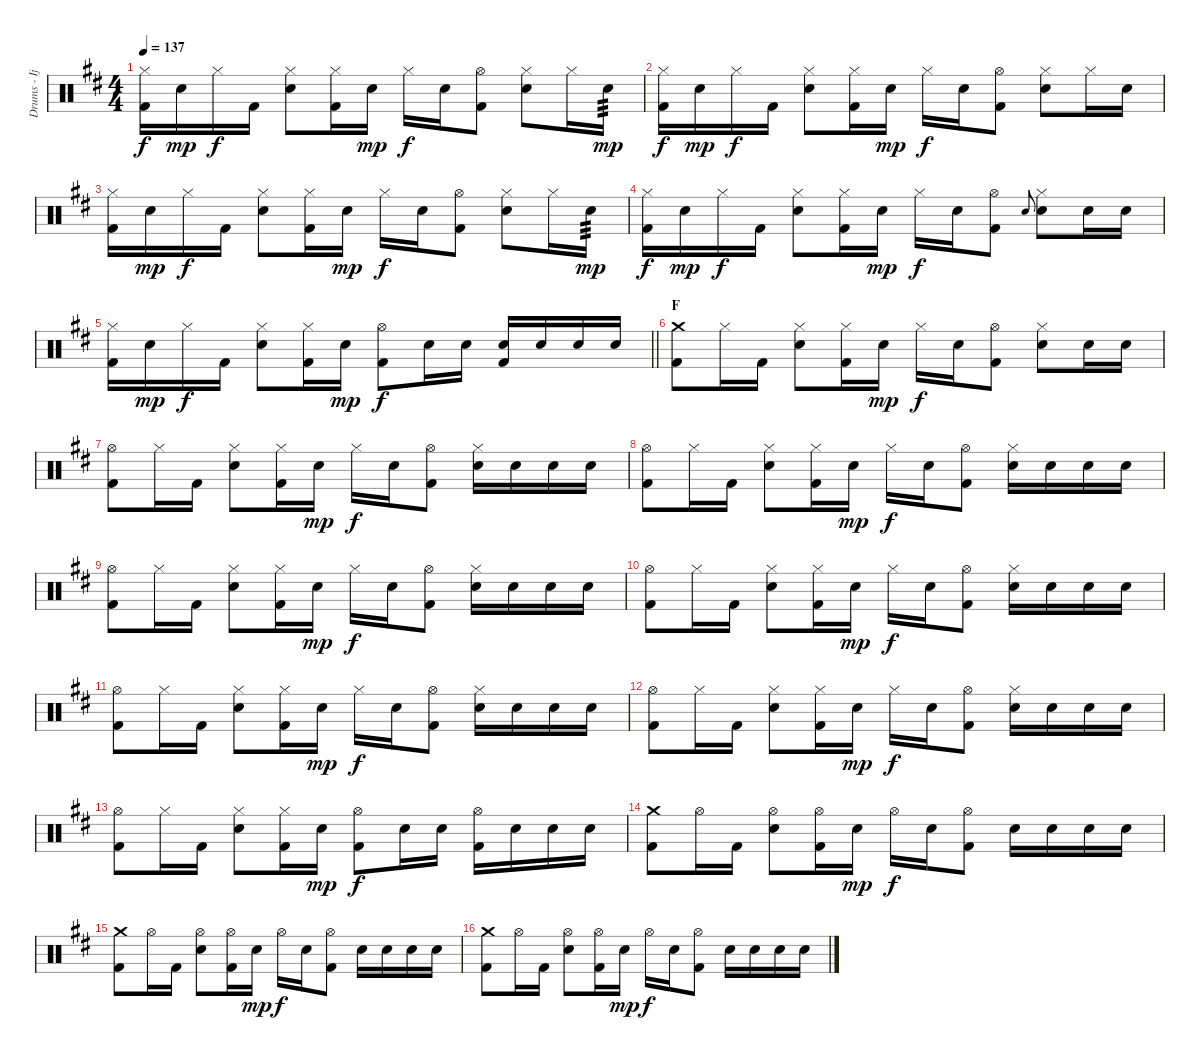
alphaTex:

\track ("Drums - Ijichi" "Drums - Ij") {instrument percussion}
\staff {score}
\articulation defaults
\ts (4 4)
\tempo 137
\clef neutral
\ks d
("Hi-Hat (closed)" "Kick (hit) 2").16{dy f} "Electric Snare (hit)".16{dy mp} "Hi-Hat (closed)".16{dy f} "Kick (hit) 2".16 ("Hi-Hat (closed)" "Electric Snare (hit)").8 ("Hi-Hat (closed)" "Kick (hit) 2").16 "Electric Snare (hit)".16{dy mp} "Hi-Hat (closed)".16{dy f} "Electric Snare (hit)".16 ("Hi-Hat (open)" "Kick (hit) 2").8 ("Hi-Hat (closed)" "Electric Snare (hit)").8 "Hi-Hat (closed)".16 "Electric Snare (hit)".16{tp 3 dy mp} |
("Hi-Hat (closed)" "Kick (hit) 2").16{dy f} "Electric Snare (hit)".16{dy mp} "Hi-Hat (closed)".16{dy f} "Kick (hit) 2".16 ("Hi-Hat (closed)" "Electric Snare (hit)").8 ("Hi-Hat (closed)" "Kick (hit) 2").16 "Electric Snare (hit)".16{dy mp} "Hi-Hat (closed)".16{dy f} "Electric Snare (hit)".16 ("Hi-Hat (open)" "Kick (hit) 2").8 ("Hi-Hat (closed)" "Electric Snare (hit)").8 "Hi-Hat (closed)".16 "Electric Snare (hit)".16 |
("Hi-Hat (closed)" "Kick (hit) 2").16 "Electric Snare (hit)".16{dy mp} "Hi-Hat (closed)".16{dy f} "Kick (hit) 2".16 ("Hi-Hat (closed)" "Electric Snare (hit)").8 ("Hi-Hat (closed)" "Kick (hit) 2").16 "Electric Snare (hit)".16{dy mp} "Hi-Hat (closed)".16{dy f} "Electric Snare (hit)".16 ("Hi-Hat (open)" "Kick (hit) 2").8 ("Hi-Hat (closed)" "Electric Snare (hit)").8 "Hi-Hat (closed)".16 "Electric Snare (hit)".16{tp 3 dy mp} |
("Hi-Hat (closed)" "Kick (hit) 2").16{dy f} "Electric Snare (hit)".16{dy mp} "Hi-Hat (closed)".16{dy f} "Kick (hit) 2".16 ("Hi-Hat (closed)" "Electric Snare (hit)").8 ("Hi-Hat (closed)" "Kick (hit) 2").16 "Electric Snare (hit)".16{dy mp} "Hi-Hat (closed)".16{dy f} "Electric Snare (hit)".16 ("Hi-Hat (open)" "Kick (hit) 2").8 "Electric Snare (hit)".8{gr onbeat} ("Hi-Hat (closed)" "Electric Snare (hit)").8 "Electric Snare (hit)".16 "Electric Snare (hit)".16 |
\barLineRight lightlight
("Hi-Hat (closed)" "Kick (hit) 2").16 "Electric Snare (hit)".16{dy mp} "Hi-Hat (closed)".16{dy f} "Kick (hit) 2".16 ("Hi-Hat (closed)" "Electric Snare (hit)").8 ("Hi-Hat (closed)" "Kick (hit) 2").16 "Electric Snare (hit)".16{dy mp} ("Hi-Hat (open)" "Kick (hit) 2").8{dy f} "Electric Snare (hit)".16 "Electric Snare (hit)".16 ("Electric Snare (hit)" "Kick (hit) 2").16 "Electric Snare (hit)".16 "Electric Snare (hit)".16 "Electric Snare (hit)".16 |
\section ("" "F")
("Crash medium (hit)" "Kick (hit) 2").8 "Hi-Hat (closed)".16 "Kick (hit) 2".16 ("Hi-Hat (closed)" "Electric Snare (hit)").8 ("Hi-Hat (closed)" "Kick (hit) 2").16 "Electric Snare (hit)".16{dy mp} "Hi-Hat (closed)".16{dy f} "Electric Snare (hit)".16 ("Hi-Hat (open)" "Kick (hit) 2").8 ("Hi-Hat (closed)" "Electric Snare (hit)").8 "Electric Snare (hit)".16 "Electric Snare (hit)".16 |
("Hi-Hat (open)" "Kick (hit) 2").8 "Hi-Hat (closed)".16 "Kick (hit) 2".16 ("Hi-Hat (closed)" "Electric Snare (hit)").8 ("Hi-Hat (closed)" "Kick (hit) 2").16 "Electric Snare (hit)".16{dy mp} "Hi-Hat (closed)".16{dy f} "Electric Snare (hit)".16 ("Hi-Hat (open)" "Kick (hit) 2").8 ("Hi-Hat (closed)" "Electric Snare (hit)").16 "Electric Snare (hit)".16 "Electric Snare (hit)".16 "Electric Snare (hit)".16 |
("Hi-Hat (open)" "Kick (hit) 2").8 "Hi-Hat (closed)".16 "Kick (hit) 2".16 ("Hi-Hat (closed)" "Electric Snare (hit)").8 ("Hi-Hat (closed)" "Kick (hit) 2").16 "Electric Snare (hit)".16{dy mp} "Hi-Hat (closed)".16{dy f} "Electric Snare (hit)".16 ("Hi-Hat (open)" "Kick (hit) 2").8 ("Hi-Hat (closed)" "Electric Snare (hit)").16 "Electric Snare (hit)".16 "Electric Snare (hit)".16 "Electric Snare (hit)".16 |
("Hi-Hat (open)" "Kick (hit) 2").8 "Hi-Hat (closed)".16 "Kick (hit) 2".16 ("Hi-Hat (closed)" "Electric Snare (hit)").8 ("Hi-Hat (closed)" "Kick (hit) 2").16 "Electric Snare (hit)".16{dy mp} "Hi-Hat (closed)".16{dy f} "Electric Snare (hit)".16 ("Hi-Hat (open)" "Kick (hit) 2").8 ("Hi-Hat (closed)" "Electric Snare (hit)").16 "Electric Snare (hit)".16 "Electric Snare (hit)".16 "Electric Snare (hit)".16 |
("Hi-Hat (open)" "Kick (hit) 2").8 "Hi-Hat (closed)".16 "Kick (hit) 2".16 ("Hi-Hat (closed)" "Electric Snare (hit)").8 ("Hi-Hat (closed)" "Kick (hit) 2").16 "Electric Snare (hit)".16{dy mp} "Hi-Hat (closed)".16{dy f} "Electric Snare (hit)".16 ("Hi-Hat (open)" "Kick (hit) 2").8 ("Hi-Hat (closed)" "Electric Snare (hit)").16 "Electric Snare (hit)".16 "Electric Snare (hit)".16 "Electric Snare (hit)".16 |
("Hi-Hat (open)" "Kick (hit) 2").8 "Hi-Hat (closed)".16 "Kick (hit) 2".16 ("Hi-Hat (closed)" "Electric Snare (hit)").8 ("Hi-Hat (closed)" "Kick (hit) 2").16 "Electric Snare (hit)".16{dy mp} "Hi-Hat (closed)".16{dy f} "Electric Snare (hit)".16 ("Hi-Hat (open)" "Kick (hit) 2").8 ("Hi-Hat (closed)" "Electric Snare (hit)").16 "Electric Snare (hit)".16 "Electric Snare (hit)".16 "Electric Snare (hit)".16 |
("Hi-Hat (open)" "Kick (hit) 2").8 "Hi-Hat (closed)".16 "Kick (hit) 2".16 ("Hi-Hat (closed)" "Electric Snare (hit)").8 ("Hi-Hat (closed)" "Kick (hit) 2").16 "Electric Snare (hit)".16{dy mp} "Hi-Hat (closed)".16{dy f} "Electric Snare (hit)".16 ("Hi-Hat (open)" "Kick (hit) 2").8 ("Hi-Hat (closed)" "Electric Snare (hit)").16 "Electric Snare (hit)".16 "Electric Snare (hit)".16 "Electric Snare (hit)".16 |
("Hi-Hat (open)" "Kick (hit) 2").8 "Hi-Hat (closed)".16 "Kick (hit) 2".16 ("Hi-Hat (closed)" "Electric Snare (hit)").8 ("Hi-Hat (closed)" "Kick (hit) 2").16 "Electric Snare (hit)".16{dy mp} ("Hi-Hat (open)" "Kick (hit) 2").8{dy f} "Electric Snare (hit)".16 "Electric Snare (hit)".16 ("Hi-Hat (open)" "Kick (hit) 2").16 "Electric Snare (hit)".16 "Electric Snare (hit)".16 "Electric Snare (hit)".16 |
("Crash medium (hit)" "Kick (hit) 2").8 "Hi-Hat (open)".16 "Kick (hit) 2".16 ("Hi-Hat (open)" "Electric Snare (hit)").8 ("Hi-Hat (open)" "Kick (hit) 2").16 "Electric Snare (hit)".16{dy mp} "Hi-Hat (open)".16{dy f} "Electric Snare (hit)".16 ("Hi-Hat (open)" "Kick (hit) 2").8 "Electric Snare (hit)".16 "Electric Snare (hit)".16 "Electric Snare (hit)".16 "Electric Snare (hit)".16 |
("Crash medium (hit)" "Kick (hit) 2").8 "Hi-Hat (open)".16 "Kick (hit) 2".16 ("Hi-Hat (open)" "Electric Snare (hit)").8 ("Hi-Hat (open)" "Kick (hit) 2").16 "Electric Snare (hit)".16{dy mp} "Hi-Hat (open)".16{dy f} "Electric Snare (hit)".16 ("Hi-Hat (open)" "Kick (hit) 2").8 "Electric Snare (hit)".16 "Electric Snare (hit)".16 "Electric Snare (hit)".16 "Electric Snare (hit)".16 |
("Crash medium (hit)" "Kick (hit) 2").8 "Hi-Hat (open)".16 "Kick (hit) 2".16 ("Hi-Hat (open)" "Electric Snare (hit)").8 ("Hi-Hat (open)" "Kick (hit) 2").16 "Electric Snare (hit)".16{dy mp} "Hi-Hat (open)".16{dy f} "Electric Snare (hit)".16 ("Hi-Hat (open)" "Kick (hit) 2").8 "Electric Snare (hit)".16 "Electric Snare (hit)".16 "Electric Snare (hit)".16 "Electric Snare (hit)".16
